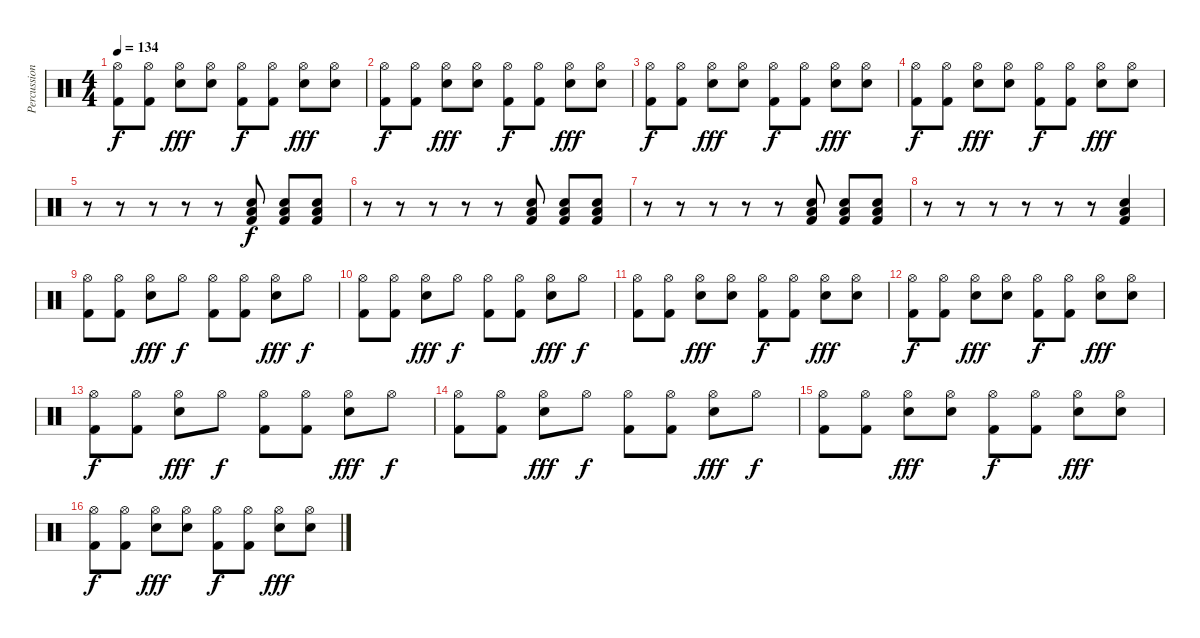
\track ("Percussion" "Percussion") {instrument percussion}
\staff {score}
\articulation defaults
\ts (4 4)
\tempo 134
\clef neutral
\ks c
("Hi-Hat (open)" "Kick (hit) 2").8{dy f} ("Hi-Hat (open)" "Kick (hit) 2").8 ("Hi-Hat (open)" "Snare (hit) 2").8{dy fff} ("Hi-Hat (open)" "Snare (hit) 2").8 ("Hi-Hat (open)" "Kick (hit) 2").8{dy f} ("Hi-Hat (open)" "Kick (hit) 2").8 ("Hi-Hat (open)" "Snare (hit) 2").8{dy fff} ("Hi-Hat (open)" "Snare (hit) 2").8 |
("Hi-Hat (open)" "Kick (hit) 2").8{dy f} ("Hi-Hat (open)" "Kick (hit) 2").8 ("Hi-Hat (open)" "Snare (hit) 2").8{dy fff} ("Hi-Hat (open)" "Snare (hit) 2").8 ("Hi-Hat (open)" "Kick (hit) 2").8{dy f} ("Hi-Hat (open)" "Kick (hit) 2").8 ("Hi-Hat (open)" "Snare (hit) 2").8{dy fff} ("Hi-Hat (open)" "Snare (hit) 2").8 |
("Hi-Hat (open)" "Kick (hit) 2").8{dy f} ("Hi-Hat (open)" "Kick (hit) 2").8 ("Hi-Hat (open)" "Snare (hit) 2").8{dy fff} ("Hi-Hat (open)" "Snare (hit) 2").8 ("Hi-Hat (open)" "Kick (hit) 2").8{dy f} ("Hi-Hat (open)" "Kick (hit) 2").8 ("Hi-Hat (open)" "Snare (hit) 2").8{dy fff} ("Hi-Hat (open)" "Snare (hit) 2").8 |
("Hi-Hat (open)" "Kick (hit) 2").8{dy f} ("Hi-Hat (open)" "Kick (hit) 2").8 ("Hi-Hat (open)" "Snare (hit) 2").8{dy fff} ("Hi-Hat (open)" "Snare (hit) 2").8 ("Hi-Hat (open)" "Kick (hit) 2").8{dy f} ("Hi-Hat (open)" "Kick (hit) 2").8 ("Hi-Hat (open)" "Snare (hit) 2").8{dy fff} ("Hi-Hat (open)" "Snare (hit) 2").8 |
r.8 r.8 r.8 r.8 r.8 ("Low Tom (hit)" "Snare (hit) 2" "Kick (hit) 2").8{dy f} ("Low Tom (hit)" "Snare (hit) 2" "Kick (hit) 2").8 ("Low Tom (hit)" "Snare (hit) 2" "Kick (hit) 2").8 |
r.8 r.8 r.8 r.8 r.8 ("Low Tom (hit)" "Snare (hit) 2" "Kick (hit) 2").8 ("Low Tom (hit)" "Snare (hit) 2" "Kick (hit) 2").8 ("Low Tom (hit)" "Snare (hit) 2" "Kick (hit) 2").8 |
r.8 r.8 r.8 r.8 r.8 ("Low Tom (hit)" "Snare (hit) 2" "Kick (hit) 2").8 ("Low Tom (hit)" "Snare (hit) 2" "Kick (hit) 2").8 ("Low Tom (hit)" "Snare (hit) 2" "Kick (hit) 2").8 |
r.8 r.8 r.8 r.8 r.8 r.8 ("Low Tom (hit)" "Snare (hit) 2" "Kick (hit) 2").4 |
("Hi-Hat (open)" "Kick (hit) 2").8 ("Hi-Hat (open)" "Kick (hit) 2").8 ("Hi-Hat (open)" "Snare (hit) 2").8{dy fff} "Hi-Hat (open)".8{dy f} ("Hi-Hat (open)" "Kick (hit) 2").8 ("Hi-Hat (open)" "Kick (hit) 2").8 ("Hi-Hat (open)" "Snare (hit) 2").8{dy fff} "Hi-Hat (open)".8{dy f} |
("Hi-Hat (open)" "Kick (hit) 2").8 ("Hi-Hat (open)" "Kick (hit) 2").8 ("Hi-Hat (open)" "Snare (hit) 2").8{dy fff} "Hi-Hat (open)".8{dy f} ("Hi-Hat (open)" "Kick (hit) 2").8 ("Hi-Hat (open)" "Kick (hit) 2").8 ("Hi-Hat (open)" "Snare (hit) 2").8{dy fff} "Hi-Hat (open)".8{dy f} |
("Hi-Hat (open)" "Kick (hit) 2").8 ("Hi-Hat (open)" "Kick (hit) 2").8 ("Hi-Hat (open)" "Snare (hit) 2").8{dy fff} ("Hi-Hat (open)" "Snare (hit) 2").8 ("Hi-Hat (open)" "Kick (hit) 2").8{dy f} ("Hi-Hat (open)" "Kick (hit) 2").8 ("Hi-Hat (open)" "Snare (hit) 2").8{dy fff} ("Hi-Hat (open)" "Snare (hit) 2").8 |
("Hi-Hat (open)" "Kick (hit) 2").8{dy f} ("Hi-Hat (open)" "Kick (hit) 2").8 ("Hi-Hat (open)" "Snare (hit) 2").8{dy fff} ("Hi-Hat (open)" "Snare (hit) 2").8 ("Hi-Hat (open)" "Kick (hit) 2").8{dy f} ("Hi-Hat (open)" "Kick (hit) 2").8 ("Hi-Hat (open)" "Snare (hit) 2").8{dy fff} ("Hi-Hat (open)" "Snare (hit) 2").8 |
("Hi-Hat (open)" "Kick (hit) 2").8{dy f} ("Hi-Hat (open)" "Kick (hit) 2").8 ("Hi-Hat (open)" "Snare (hit) 2").8{dy fff} "Hi-Hat (open)".8{dy f} ("Hi-Hat (open)" "Kick (hit) 2").8 ("Hi-Hat (open)" "Kick (hit) 2").8 ("Hi-Hat (open)" "Snare (hit) 2").8{dy fff} "Hi-Hat (open)".8{dy f} |
("Hi-Hat (open)" "Kick (hit) 2").8 ("Hi-Hat (open)" "Kick (hit) 2").8 ("Hi-Hat (open)" "Snare (hit) 2").8{dy fff} "Hi-Hat (open)".8{dy f} ("Hi-Hat (open)" "Kick (hit) 2").8 ("Hi-Hat (open)" "Kick (hit) 2").8 ("Hi-Hat (open)" "Snare (hit) 2").8{dy fff} "Hi-Hat (open)".8{dy f} |
("Hi-Hat (open)" "Kick (hit) 2").8 ("Hi-Hat (open)" "Kick (hit) 2").8 ("Hi-Hat (open)" "Snare (hit) 2").8{dy fff} ("Hi-Hat (open)" "Snare (hit) 2").8 ("Hi-Hat (open)" "Kick (hit) 2").8{dy f} ("Hi-Hat (open)" "Kick (hit) 2").8 ("Hi-Hat (open)" "Snare (hit) 2").8{dy fff} ("Hi-Hat (open)" "Snare (hit) 2").8 |
("Hi-Hat (open)" "Kick (hit) 2").8{dy f} ("Hi-Hat (open)" "Kick (hit) 2").8 ("Hi-Hat (open)" "Snare (hit) 2").8{dy fff} ("Hi-Hat (open)" "Snare (hit) 2").8 ("Hi-Hat (open)" "Kick (hit) 2").8{dy f} ("Hi-Hat (open)" "Kick (hit) 2").8 ("Hi-Hat (open)" "Snare (hit) 2").8{dy fff} ("Hi-Hat (open)" "Snare (hit) 2").8
